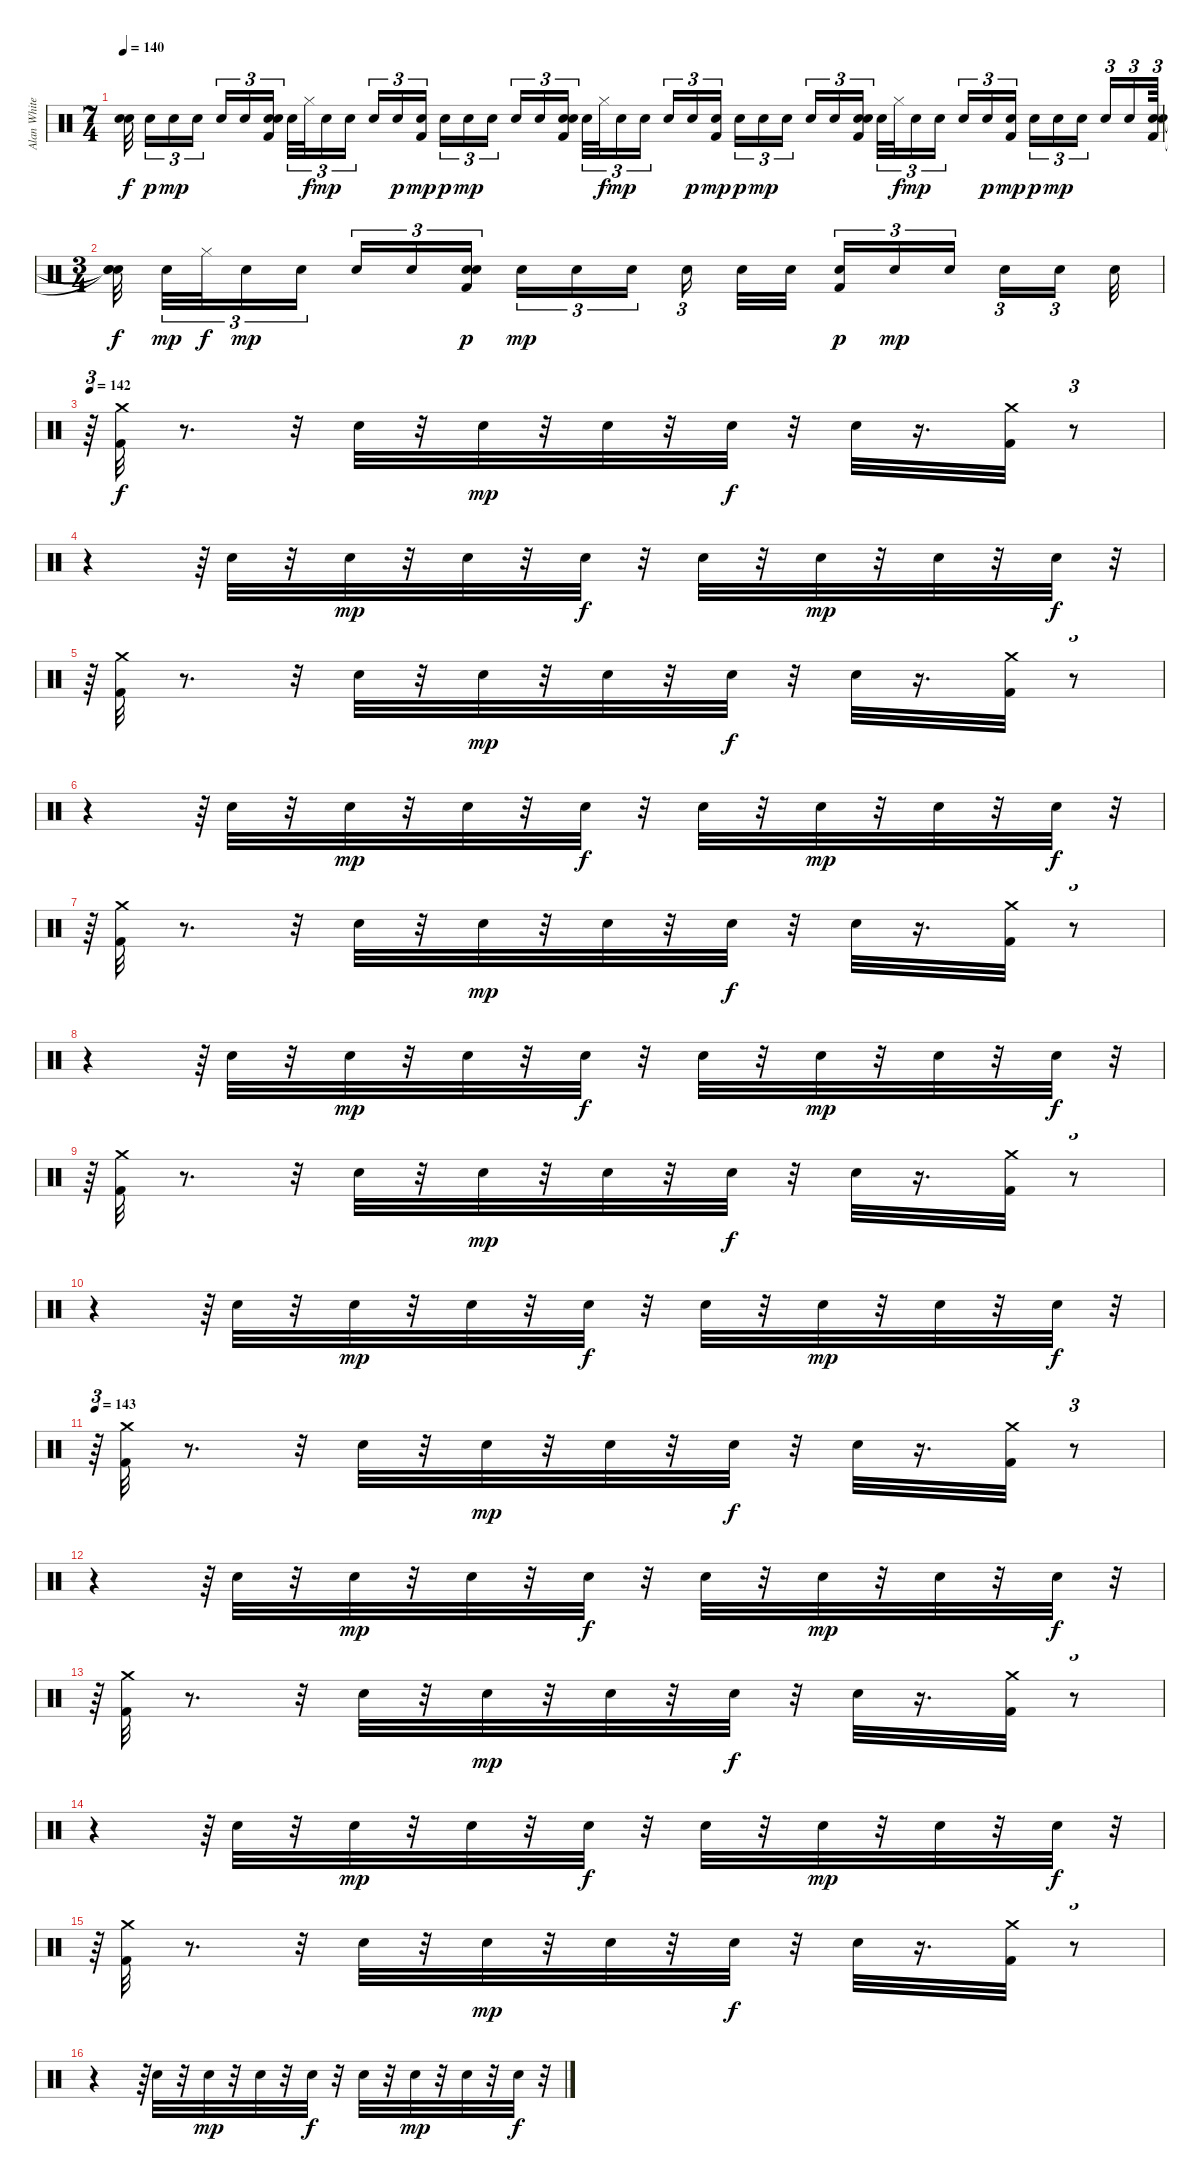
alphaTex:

\track ("Alan White" "Alan White") {instrument percussion}
\staff {score}
\articulation defaults
\ts (7 4)
\tempo 140
\clef neutral
\ks c
("Snare (hit)"{t} "Snare (hit)"{t}).32{dy f beam splitsecondary} "Electric Snare (hit)".16{tu (3 2) dy p} "Electric Snare (hit)".16{tu (3 2) dy mp} "Electric Snare (hit)".16{tu (3 2) beam splitsecondary} "Electric Snare (hit)".16{tu (3 2)} "Electric Snare (hit)".16{tu (3 2)} ("Kick (hit) 2" "Electric Snare (hit)" "Snare (hit) 2").16{tu (3 2)} "Electric Snare (hit)".32{tu (3 2)} "Hi-Hat (closed)".32{tu (3 2) dy f} "Electric Snare (hit)".16{tu (3 2) dy mp} "Electric Snare (hit)".16{tu (3 2) beam splitsecondary} "Electric Snare (hit)".16{tu (3 2)} "Electric Snare (hit)".16{tu (3 2) dy p} ("Kick (hit) 2" "Electric Snare (hit)").16{tu (3 2) dy mp} "Electric Snare (hit)".16{tu (3 2) dy p} "Electric Snare (hit)".16{tu (3 2) dy mp} "Electric Snare (hit)".16{tu (3 2) beam splitsecondary} "Electric Snare (hit)".16{tu (3 2)} "Electric Snare (hit)".16{tu (3 2)} ("Electric Snare (hit)" "Kick (hit) 2" "Snare (hit) 2").16{tu (3 2)} "Electric Snare (hit)".32{tu (3 2)} "Hi-Hat (closed)".32{tu (3 2) dy f} "Electric Snare (hit)".16{tu (3 2) dy mp} "Electric Snare (hit)".16{tu (3 2) beam splitsecondary} "Electric Snare (hit)".16{tu (3 2)} "Electric Snare (hit)".16{tu (3 2) dy p} ("Electric Snare (hit)" "Kick (hit) 2").16{tu (3 2) dy mp} "Electric Snare (hit)".16{tu (3 2) dy p} "Electric Snare (hit)".16{tu (3 2) dy mp} "Electric Snare (hit)".16{tu (3 2) beam splitsecondary} "Electric Snare (hit)".16{tu (3 2)} "Electric Snare (hit)".16{tu (3 2)} ("Kick (hit) 2" "Electric Snare (hit)" "Snare (hit) 2").16{tu (3 2)} "Electric Snare (hit)".32{tu (3 2)} "Hi-Hat (closed)".32{tu (3 2) dy f} "Electric Snare (hit)".16{tu (3 2) dy mp} "Electric Snare (hit)".16{tu (3 2) beam splitsecondary} "Electric Snare (hit)".16{tu (3 2)} "Electric Snare (hit)".16{tu (3 2) dy p} ("Electric Snare (hit)" "Kick (hit) 2").16{tu (3 2) dy mp} "Electric Snare (hit)".16{tu (3 2) dy p} "Electric Snare (hit)".16{tu (3 2) dy mp} "Electric Snare (hit)".16{tu (3 2) beam splitsecondary} "Electric Snare (hit)".16{tu (3 2)} "Electric Snare (hit)".16{tu (3 2)} ("Electric Snare (hit)" "Kick (hit) 2" "Snare (hit) 2").64{tu (3 2)} |
\ts (3 4)
("Snare (hit)"{t} "Snare (hit)"{t} "Snare (hit)"{t}).32{dy f beam splitsecondary} "Electric Snare (hit)".32{tu (3 2) dy mp} "Hi-Hat (closed)".32{tu (3 2) dy f} "Electric Snare (hit)".16{tu (3 2) dy mp} "Electric Snare (hit)".16{tu (3 2) beam splitsecondary} "Electric Snare (hit)".16{tu (3 2)} "Electric Snare (hit)".16{tu (3 2)} ("Snare (hit) 2" "Electric Snare (hit)" "Kick (hit) 2").16{tu (3 2) dy p} "Electric Snare (hit)".16{tu (3 2) dy mp} "Electric Snare (hit)".16{tu (3 2)} "Electric Snare (hit)".16{tu (3 2) beam splitsecondary} "Electric Snare (hit)".16{tu (3 2) beam splitsecondary} "Electric Snare (hit)".32 "Snare (hit) 2".32 ("Electric Snare (hit)" "Kick (hit) 2").16{tu (3 2) dy p} "Electric Snare (hit)".16{tu (3 2) dy mp} "Electric Snare (hit)".16{tu (3 2) beam splitsecondary} "Electric Snare (hit)".16{tu (3 2)} "Electric Snare (hit)".16{tu (3 2) beam splitsecondary} "Electric Snare (hit)".32 |
\tempo 142
r.64{tu (3 2)} ("Crash medium (hit)" "Kick (hit) 2").32{dy f} r.8{d} r.32 "Electric Snare (hit)".32 r.32 "Electric Snare (hit)".32{dy mp} r.32 "Electric Snare (hit)".32 r.32 "Electric Snare (hit)".32{dy f} r.32 "Electric Snare (hit)".32 r.16{d} ("Crash medium (hit)" "Kick (hit) 2").32 r.8{tu (3 2)} |
r.4 r.64{tu (3 2)} "Electric Snare (hit)".32 r.32 "Electric Snare (hit)".32{dy mp} r.32 "Electric Snare (hit)".32 r.32 "Electric Snare (hit)".32{dy f} r.32 "Electric Snare (hit)".32 r.32 "Electric Snare (hit)".32{dy mp} r.32 "Electric Snare (hit)".32 r.32 "Electric Snare (hit)".32{dy f} r.32{tu (3 2)} |
r.64{tu (3 2)} ("Crash medium (hit)" "Kick (hit) 2").32 r.8{d} r.32 "Electric Snare (hit)".32 r.32 "Electric Snare (hit)".32{dy mp} r.32 "Electric Snare (hit)".32 r.32 "Electric Snare (hit)".32{dy f} r.32 "Electric Snare (hit)".32 r.16{d} ("Crash medium (hit)" "Kick (hit) 2").32 r.8{tu (3 2)} |
r.4 r.64{tu (3 2)} "Electric Snare (hit)".32 r.32 "Electric Snare (hit)".32{dy mp} r.32 "Electric Snare (hit)".32 r.32 "Electric Snare (hit)".32{dy f} r.32 "Electric Snare (hit)".32 r.32 "Electric Snare (hit)".32{dy mp} r.32 "Electric Snare (hit)".32 r.32 "Electric Snare (hit)".32{dy f} r.32{tu (3 2)} |
r.64{tu (3 2)} ("Crash medium (hit)" "Kick (hit) 2").32 r.8{d} r.32 "Electric Snare (hit)".32 r.32 "Electric Snare (hit)".32{dy mp} r.32 "Electric Snare (hit)".32 r.32 "Electric Snare (hit)".32{dy f} r.32 "Electric Snare (hit)".32 r.16{d} ("Kick (hit) 2" "Crash medium (hit)").32 r.8{tu (3 2)} |
r.4 r.64{tu (3 2)} "Electric Snare (hit)".32 r.32 "Electric Snare (hit)".32{dy mp} r.32 "Electric Snare (hit)".32 r.32 "Electric Snare (hit)".32{dy f} r.32 "Electric Snare (hit)".32 r.32 "Electric Snare (hit)".32{dy mp} r.32 "Electric Snare (hit)".32 r.32 "Electric Snare (hit)".32{dy f} r.32{tu (3 2)} |
r.64{tu (3 2)} ("Crash medium (hit)" "Kick (hit) 2").32 r.8{d} r.32 "Electric Snare (hit)".32 r.32 "Electric Snare (hit)".32{dy mp} r.32 "Electric Snare (hit)".32 r.32 "Electric Snare (hit)".32{dy f} r.32 "Electric Snare (hit)".32 r.16{d} ("Kick (hit) 2" "Crash medium (hit)").32 r.8{tu (3 2)} |
r.4 r.64{tu (3 2)} "Electric Snare (hit)".32 r.32 "Electric Snare (hit)".32{dy mp} r.32 "Electric Snare (hit)".32 r.32 "Electric Snare (hit)".32{dy f} r.32 "Electric Snare (hit)".32 r.32 "Electric Snare (hit)".32{dy mp} r.32 "Electric Snare (hit)".32 r.32 "Electric Snare (hit)".32{dy f} r.32{tu (3 2)} |
\tempo 143
r.64{tu (3 2)} ("Kick (hit) 2" "Crash medium (hit)").32 r.8{d} r.32 "Electric Snare (hit)".32 r.32 "Electric Snare (hit)".32{dy mp} r.32 "Electric Snare (hit)".32 r.32 "Electric Snare (hit)".32{dy f} r.32 "Electric Snare (hit)".32 r.16{d} ("Kick (hit) 2" "Crash medium (hit)").32 r.8{tu (3 2)} |
r.4 r.64{tu (3 2)} "Electric Snare (hit)".32 r.32 "Electric Snare (hit)".32{dy mp} r.32 "Electric Snare (hit)".32 r.32 "Electric Snare (hit)".32{dy f} r.32 "Electric Snare (hit)".32 r.32 "Electric Snare (hit)".32{dy mp} r.32 "Electric Snare (hit)".32 r.32 "Electric Snare (hit)".32{dy f} r.32{tu (3 2)} |
r.64{tu (3 2)} ("Kick (hit) 2" "Crash medium (hit)").32 r.8{d} r.32 "Electric Snare (hit)".32 r.32 "Electric Snare (hit)".32{dy mp} r.32 "Electric Snare (hit)".32 r.32 "Electric Snare (hit)".32{dy f} r.32 "Electric Snare (hit)".32 r.16{d} ("Crash medium (hit)" "Kick (hit) 2").32 r.8{tu (3 2)} |
r.4 r.64{tu (3 2)} "Electric Snare (hit)".32 r.32 "Electric Snare (hit)".32{dy mp} r.32 "Electric Snare (hit)".32 r.32 "Electric Snare (hit)".32{dy f} r.32 "Electric Snare (hit)".32 r.32 "Electric Snare (hit)".32{dy mp} r.32 "Electric Snare (hit)".32 r.32 "Electric Snare (hit)".32{dy f} r.32{tu (3 2)} |
r.64{tu (3 2)} ("Crash medium (hit)" "Kick (hit) 2").32 r.8{d} r.32 "Electric Snare (hit)".32 r.32 "Electric Snare (hit)".32{dy mp} r.32 "Electric Snare (hit)".32 r.32 "Electric Snare (hit)".32{dy f} r.32 "Electric Snare (hit)".32 r.16{d} ("Crash medium (hit)" "Kick (hit) 2").32 r.8{tu (3 2)} |
r.4 r.64{tu (3 2)} "Electric Snare (hit)".32 r.32 "Electric Snare (hit)".32{dy mp} r.32 "Electric Snare (hit)".32 r.32 "Electric Snare (hit)".32{dy f} r.32 "Electric Snare (hit)".32 r.32 "Electric Snare (hit)".32{dy mp} r.32 "Electric Snare (hit)".32 r.32 "Electric Snare (hit)".32{dy f} r.32{tu (3 2)}
